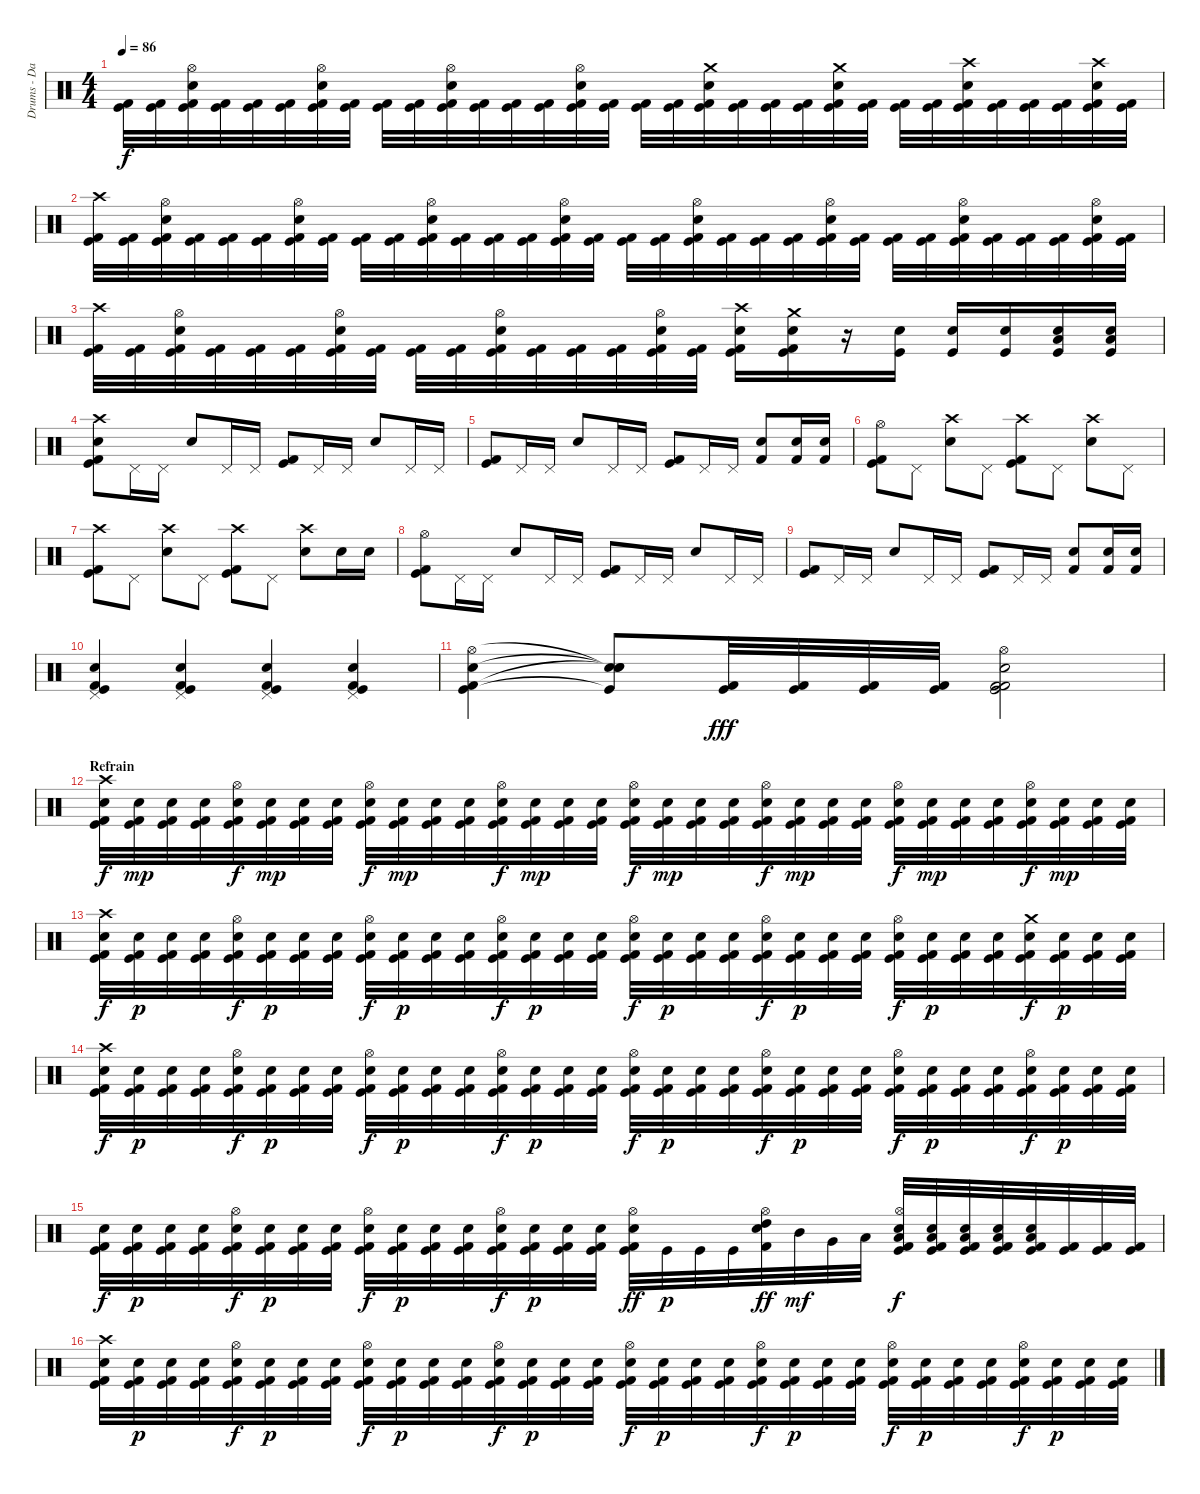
\track ("Drums - Daniel Zimmermann" "Drums - Da") {instrument percussion}
\staff {score}
\articulation defaults
\ts (4 4)
\tempo 86
\clef neutral
\ks c
("Kick (hit)" "Kick (hit) 2").32{dy f} ("Kick (hit)" "Kick (hit) 2").32 ("Kick (hit)" "Kick (hit) 2" "Electric Snare (hit)" "Hi-Hat (open)").32 ("Kick (hit)" "Kick (hit) 2").32 ("Kick (hit)" "Kick (hit) 2").32 ("Kick (hit)" "Kick (hit) 2").32 ("Kick (hit)" "Kick (hit) 2" "Electric Snare (hit)" "Hi-Hat (open)").32 ("Kick (hit)" "Kick (hit) 2").32 ("Kick (hit)" "Kick (hit) 2").32 ("Kick (hit)" "Kick (hit) 2").32 ("Kick (hit)" "Kick (hit) 2" "Electric Snare (hit)" "Hi-Hat (open)").32 ("Kick (hit)" "Kick (hit) 2").32 ("Kick (hit)" "Kick (hit) 2").32 ("Kick (hit)" "Kick (hit) 2").32 ("Kick (hit)" "Kick (hit) 2" "Electric Snare (hit)" "Hi-Hat (open)").32 ("Kick (hit)" "Kick (hit) 2").32 ("Kick (hit)" "Kick (hit) 2").32 ("Kick (hit)" "Kick (hit) 2").32 ("Kick (hit)" "Kick (hit) 2" "Electric Snare (hit)" "Crash medium (hit)").32 ("Kick (hit)" "Kick (hit) 2").32 ("Kick (hit)" "Kick (hit) 2").32 ("Kick (hit)" "Kick (hit) 2").32 ("Kick (hit)" "Kick (hit) 2" "Electric Snare (hit)" "Crash medium (hit)").32 ("Kick (hit)" "Kick (hit) 2").32 ("Kick (hit)" "Kick (hit) 2").32 ("Kick (hit)" "Kick (hit) 2").32 ("Kick (hit)" "Kick (hit) 2" "Electric Snare (hit)" "Crash high (hit)").32 ("Kick (hit)" "Kick (hit) 2").32 ("Kick (hit)" "Kick (hit) 2").32 ("Kick (hit)" "Kick (hit) 2").32 ("Kick (hit)" "Kick (hit) 2" "Electric Snare (hit)" "Crash high (hit)").32 ("Kick (hit)" "Kick (hit) 2").32 |
("Kick (hit)" "Kick (hit) 2" "Crash high (hit)").32 ("Kick (hit)" "Kick (hit) 2").32 ("Kick (hit)" "Kick (hit) 2" "Electric Snare (hit)" "Hi-Hat (open)").32 ("Kick (hit)" "Kick (hit) 2").32 ("Kick (hit)" "Kick (hit) 2").32 ("Kick (hit)" "Kick (hit) 2").32 ("Kick (hit)" "Kick (hit) 2" "Electric Snare (hit)" "Hi-Hat (open)").32 ("Kick (hit)" "Kick (hit) 2").32 ("Kick (hit)" "Kick (hit) 2").32 ("Kick (hit)" "Kick (hit) 2").32 ("Kick (hit)" "Kick (hit) 2" "Electric Snare (hit)" "Hi-Hat (open)").32 ("Kick (hit)" "Kick (hit) 2").32 ("Kick (hit)" "Kick (hit) 2").32 ("Kick (hit)" "Kick (hit) 2").32 ("Kick (hit)" "Kick (hit) 2" "Electric Snare (hit)" "Hi-Hat (open)").32 ("Kick (hit)" "Kick (hit) 2").32 ("Kick (hit)" "Kick (hit) 2").32 ("Kick (hit)" "Kick (hit) 2").32 ("Kick (hit)" "Kick (hit) 2" "Electric Snare (hit)" "Hi-Hat (open)").32 ("Kick (hit)" "Kick (hit) 2").32 ("Kick (hit)" "Kick (hit) 2").32 ("Kick (hit)" "Kick (hit) 2").32 ("Kick (hit)" "Kick (hit) 2" "Electric Snare (hit)" "Hi-Hat (open)").32 ("Kick (hit)" "Kick (hit) 2").32 ("Kick (hit)" "Kick (hit) 2").32 ("Kick (hit)" "Kick (hit) 2").32 ("Kick (hit)" "Kick (hit) 2" "Electric Snare (hit)" "Hi-Hat (open)").32 ("Kick (hit)" "Kick (hit) 2").32 ("Kick (hit)" "Kick (hit) 2").32 ("Kick (hit)" "Kick (hit) 2").32 ("Kick (hit)" "Kick (hit) 2" "Electric Snare (hit)" "Hi-Hat (open)").32 ("Kick (hit)" "Kick (hit) 2").32 |
("Kick (hit)" "Kick (hit) 2" "Crash high (hit)").32 ("Kick (hit)" "Kick (hit) 2").32 ("Kick (hit)" "Kick (hit) 2" "Electric Snare (hit)" "Hi-Hat (open)").32 ("Kick (hit)" "Kick (hit) 2").32 ("Kick (hit)" "Kick (hit) 2").32 ("Kick (hit)" "Kick (hit) 2").32 ("Kick (hit)" "Kick (hit) 2" "Electric Snare (hit)" "Hi-Hat (open)").32 ("Kick (hit)" "Kick (hit) 2").32 ("Kick (hit)" "Kick (hit) 2").32 ("Kick (hit)" "Kick (hit) 2").32 ("Kick (hit)" "Kick (hit) 2" "Electric Snare (hit)" "Hi-Hat (open)").32 ("Kick (hit)" "Kick (hit) 2").32 ("Kick (hit)" "Kick (hit) 2").32 ("Kick (hit)" "Kick (hit) 2").32 ("Kick (hit)" "Kick (hit) 2" "Electric Snare (hit)" "Hi-Hat (open)").32 ("Kick (hit)" "Kick (hit) 2").32 ("Kick (hit)" "Kick (hit) 2" "Electric Snare (hit)" "Crash high (hit)").16 ("Kick (hit)" "Kick (hit) 2" "Electric Snare (hit)" "Crash medium (hit)").16 r.16 ("Kick (hit)" "Electric Snare (hit)").16 ("Kick (hit)" "Electric Snare (hit)").16 ("Kick (hit)" "Electric Snare (hit)").16 ("Kick (hit)" "Low Floor Tom (hit)" "Electric Snare (hit)").16 ("Kick (hit)" "Low Floor Tom (hit)" "Electric Snare (hit)").16 |
("Kick (hit)" "Kick (hit) 2" "Electric Snare (hit)" "Crash high (hit)").8 "Pedal Hi-Hat (hit)".16 "Pedal Hi-Hat (hit)".16 "Electric Snare (hit)".8 "Pedal Hi-Hat (hit)".16 "Pedal Hi-Hat (hit)".16 ("Kick (hit)" "Kick (hit) 2").8 "Pedal Hi-Hat (hit)".16 "Pedal Hi-Hat (hit)".16 "Electric Snare (hit)".8 "Pedal Hi-Hat (hit)".16 "Pedal Hi-Hat (hit)".16 |
("Kick (hit)" "Kick (hit) 2").8 "Pedal Hi-Hat (hit)".16 "Pedal Hi-Hat (hit)".16 "Electric Snare (hit)".8 "Pedal Hi-Hat (hit)".16 "Pedal Hi-Hat (hit)".16 ("Kick (hit)" "Kick (hit) 2").8 "Pedal Hi-Hat (hit)".16 "Pedal Hi-Hat (hit)".16 ("Kick (hit) 2" "Electric Snare (hit)").8 ("Kick (hit) 2" "Electric Snare (hit)").16 ("Kick (hit) 2" "Electric Snare (hit)").16 |
("Hi-Hat (open)" "Kick (hit)" "Kick (hit) 2").8 "Pedal Hi-Hat (hit)".8 ("Crash high (hit)" "Electric Snare (hit)").8 "Pedal Hi-Hat (hit)".8 ("Crash high (hit)" "Kick (hit)" "Kick (hit) 2").8 "Pedal Hi-Hat (hit)".8 ("Crash high (hit)" "Electric Snare (hit)").8 "Pedal Hi-Hat (hit)".8 |
("Crash high (hit)" "Kick (hit)" "Kick (hit) 2").8 "Pedal Hi-Hat (hit)".8 ("Crash high (hit)" "Electric Snare (hit)").8 "Pedal Hi-Hat (hit)".8 ("Crash high (hit)" "Kick (hit)" "Kick (hit) 2").8 "Pedal Hi-Hat (hit)".8 ("Crash high (hit)" "Electric Snare (hit)").8 "Electric Snare (hit)".16 "Electric Snare (hit)".16 |
("Kick (hit)" "Kick (hit) 2" "Hi-Hat (open)").8 "Pedal Hi-Hat (hit)".16 "Pedal Hi-Hat (hit)".16 "Electric Snare (hit)".8 "Pedal Hi-Hat (hit)".16 "Pedal Hi-Hat (hit)".16 ("Kick (hit)" "Kick (hit) 2").8 "Pedal Hi-Hat (hit)".16 "Pedal Hi-Hat (hit)".16 "Electric Snare (hit)".8 "Pedal Hi-Hat (hit)".16 "Pedal Hi-Hat (hit)".16 |
("Kick (hit)" "Kick (hit) 2").8 "Pedal Hi-Hat (hit)".16 "Pedal Hi-Hat (hit)".16 "Electric Snare (hit)".8 "Pedal Hi-Hat (hit)".16 "Pedal Hi-Hat (hit)".16 ("Kick (hit)" "Kick (hit) 2").8 "Pedal Hi-Hat (hit)".16 "Pedal Hi-Hat (hit)".16 ("Kick (hit) 2" "Electric Snare (hit)").8 ("Kick (hit) 2" "Electric Snare (hit)").16 ("Kick (hit) 2" "Electric Snare (hit)").16 |
("Kick (hit)" "Kick (hit) 2" "Electric Snare (hit)" "Pedal Hi-Hat (hit)").4 ("Kick (hit)" "Kick (hit) 2" "Electric Snare (hit)" "Pedal Hi-Hat (hit)").4 ("Kick (hit)" "Kick (hit) 2" "Electric Snare (hit)" "Pedal Hi-Hat (hit)").4 ("Kick (hit)" "Kick (hit) 2" "Electric Snare (hit)" "Pedal Hi-Hat (hit)").4 |
("Kick (hit)" "Kick (hit) 2" "Electric Snare (hit)" "Hi-Hat (open)").4 ("Kick (hit)"{t} "Snare (hit)"{t} "Snare (hit)"{t} "Snare (hit)"{t}).8 ("Kick (hit)" "Kick (hit) 2").32{dy fff} ("Kick (hit)" "Kick (hit) 2").32 ("Kick (hit)" "Kick (hit) 2").32 ("Kick (hit)" "Kick (hit) 2").32 ("Kick (hit)" "Kick (hit) 2" "Kick (hit) 2" "Electric Snare (hit)" "Hi-Hat (open)").2 |
\section ("" "Refrain")
("Kick (hit)" "Kick (hit) 2" "Electric Snare (hit)" "Crash high (hit)").32{dy f} ("Kick (hit)" "Kick (hit) 2" "Electric Snare (hit)").32{dy mp} ("Kick (hit)" "Kick (hit) 2" "Electric Snare (hit)").32 ("Kick (hit)" "Kick (hit) 2" "Electric Snare (hit)").32 ("Kick (hit)" "Kick (hit) 2" "Electric Snare (hit)" "Hi-Hat (open)").32{dy f} ("Kick (hit)" "Kick (hit) 2" "Electric Snare (hit)").32{dy mp} ("Kick (hit)" "Kick (hit) 2" "Electric Snare (hit)").32 ("Kick (hit)" "Kick (hit) 2" "Electric Snare (hit)").32 ("Kick (hit)" "Kick (hit) 2" "Electric Snare (hit)" "Hi-Hat (open)").32{dy f} ("Kick (hit)" "Kick (hit) 2" "Electric Snare (hit)").32{dy mp} ("Kick (hit)" "Kick (hit) 2" "Electric Snare (hit)").32 ("Kick (hit)" "Kick (hit) 2" "Electric Snare (hit)").32 ("Kick (hit)" "Kick (hit) 2" "Electric Snare (hit)" "Hi-Hat (open)").32{dy f} ("Kick (hit)" "Kick (hit) 2" "Electric Snare (hit)").32{dy mp} ("Kick (hit)" "Kick (hit) 2" "Electric Snare (hit)").32 ("Kick (hit)" "Kick (hit) 2" "Electric Snare (hit)").32 ("Kick (hit)" "Kick (hit) 2" "Electric Snare (hit)" "Hi-Hat (open)").32{dy f} ("Kick (hit)" "Kick (hit) 2" "Electric Snare (hit)").32{dy mp} ("Kick (hit)" "Kick (hit) 2" "Electric Snare (hit)").32 ("Kick (hit)" "Kick (hit) 2" "Electric Snare (hit)").32 ("Kick (hit)" "Kick (hit) 2" "Electric Snare (hit)" "Hi-Hat (open)").32{dy f} ("Kick (hit)" "Kick (hit) 2" "Electric Snare (hit)").32{dy mp} ("Kick (hit)" "Kick (hit) 2" "Electric Snare (hit)").32 ("Kick (hit)" "Kick (hit) 2" "Electric Snare (hit)").32 ("Kick (hit)" "Kick (hit) 2" "Electric Snare (hit)" "Hi-Hat (open)").32{dy f} ("Kick (hit)" "Kick (hit) 2" "Electric Snare (hit)").32{dy mp} ("Kick (hit)" "Kick (hit) 2" "Electric Snare (hit)").32 ("Kick (hit)" "Kick (hit) 2" "Electric Snare (hit)").32 ("Kick (hit)" "Kick (hit) 2" "Electric Snare (hit)" "Hi-Hat (open)").32{dy f} ("Kick (hit)" "Kick (hit) 2" "Electric Snare (hit)").32{dy mp} ("Kick (hit)" "Kick (hit) 2" "Electric Snare (hit)").32 ("Kick (hit)" "Kick (hit) 2" "Electric Snare (hit)").32 |
("Kick (hit)" "Kick (hit) 2" "Electric Snare (hit)" "Crash high (hit)").32{dy f} ("Kick (hit)" "Kick (hit) 2" "Electric Snare (hit)").32{dy p} ("Kick (hit)" "Kick (hit) 2" "Electric Snare (hit)").32 ("Kick (hit)" "Kick (hit) 2" "Electric Snare (hit)").32 ("Kick (hit)" "Kick (hit) 2" "Electric Snare (hit)" "Hi-Hat (open)").32{dy f} ("Kick (hit)" "Kick (hit) 2" "Electric Snare (hit)").32{dy p} ("Kick (hit)" "Kick (hit) 2" "Electric Snare (hit)").32 ("Kick (hit)" "Kick (hit) 2" "Electric Snare (hit)").32 ("Kick (hit)" "Kick (hit) 2" "Electric Snare (hit)" "Hi-Hat (open)").32{dy f} ("Kick (hit)" "Kick (hit) 2" "Electric Snare (hit)").32{dy p} ("Kick (hit)" "Kick (hit) 2" "Electric Snare (hit)").32 ("Kick (hit)" "Kick (hit) 2" "Electric Snare (hit)").32 ("Kick (hit)" "Kick (hit) 2" "Electric Snare (hit)" "Hi-Hat (open)").32{dy f} ("Kick (hit)" "Kick (hit) 2" "Electric Snare (hit)").32{dy p} ("Kick (hit)" "Kick (hit) 2" "Electric Snare (hit)").32 ("Kick (hit)" "Kick (hit) 2" "Electric Snare (hit)").32 ("Kick (hit)" "Kick (hit) 2" "Electric Snare (hit)" "Hi-Hat (open)").32{dy f} ("Kick (hit)" "Kick (hit) 2" "Electric Snare (hit)").32{dy p} ("Kick (hit)" "Kick (hit) 2" "Electric Snare (hit)").32 ("Kick (hit)" "Kick (hit) 2" "Electric Snare (hit)").32 ("Kick (hit)" "Kick (hit) 2" "Electric Snare (hit)" "Hi-Hat (open)").32{dy f} ("Kick (hit)" "Kick (hit) 2" "Electric Snare (hit)").32{dy p} ("Kick (hit)" "Kick (hit) 2" "Electric Snare (hit)").32 ("Kick (hit)" "Kick (hit) 2" "Electric Snare (hit)").32 ("Kick (hit)" "Kick (hit) 2" "Electric Snare (hit)" "Hi-Hat (open)").32{dy f} ("Kick (hit)" "Kick (hit) 2" "Electric Snare (hit)").32{dy p} ("Kick (hit)" "Kick (hit) 2" "Electric Snare (hit)").32 ("Kick (hit)" "Kick (hit) 2" "Electric Snare (hit)").32 ("Kick (hit)" "Kick (hit) 2" "Electric Snare (hit)" "Crash medium (hit)").32{dy f} ("Kick (hit)" "Kick (hit) 2" "Electric Snare (hit)").32{dy p} ("Kick (hit)" "Kick (hit) 2" "Electric Snare (hit)").32 ("Kick (hit)" "Kick (hit) 2" "Electric Snare (hit)").32 |
("Kick (hit)" "Kick (hit) 2" "Electric Snare (hit)" "Crash high (hit)").32{dy f} ("Kick (hit)" "Kick (hit) 2" "Electric Snare (hit)").32{dy p} ("Kick (hit)" "Kick (hit) 2" "Electric Snare (hit)").32 ("Kick (hit)" "Kick (hit) 2" "Electric Snare (hit)").32 ("Kick (hit)" "Kick (hit) 2" "Electric Snare (hit)" "Hi-Hat (open)").32{dy f} ("Kick (hit)" "Kick (hit) 2" "Electric Snare (hit)").32{dy p} ("Kick (hit)" "Kick (hit) 2" "Electric Snare (hit)").32 ("Kick (hit)" "Kick (hit) 2" "Electric Snare (hit)").32 ("Kick (hit)" "Kick (hit) 2" "Electric Snare (hit)" "Hi-Hat (open)").32{dy f} ("Kick (hit)" "Kick (hit) 2" "Electric Snare (hit)").32{dy p} ("Kick (hit)" "Kick (hit) 2" "Electric Snare (hit)").32 ("Kick (hit)" "Kick (hit) 2" "Electric Snare (hit)").32 ("Kick (hit)" "Kick (hit) 2" "Electric Snare (hit)" "Hi-Hat (open)").32{dy f} ("Kick (hit)" "Kick (hit) 2" "Electric Snare (hit)").32{dy p} ("Kick (hit)" "Kick (hit) 2" "Electric Snare (hit)").32 ("Kick (hit)" "Kick (hit) 2" "Electric Snare (hit)").32 ("Kick (hit)" "Kick (hit) 2" "Electric Snare (hit)" "Hi-Hat (open)").32{dy f} ("Kick (hit)" "Kick (hit) 2" "Electric Snare (hit)").32{dy p} ("Kick (hit)" "Kick (hit) 2" "Electric Snare (hit)").32 ("Kick (hit)" "Kick (hit) 2" "Electric Snare (hit)").32 ("Kick (hit)" "Kick (hit) 2" "Electric Snare (hit)" "Hi-Hat (open)").32{dy f} ("Kick (hit)" "Kick (hit) 2" "Electric Snare (hit)").32{dy p} ("Kick (hit)" "Kick (hit) 2" "Electric Snare (hit)").32 ("Kick (hit)" "Kick (hit) 2" "Electric Snare (hit)").32 ("Kick (hit)" "Kick (hit) 2" "Electric Snare (hit)" "Hi-Hat (open)").32{dy f} ("Kick (hit)" "Kick (hit) 2" "Electric Snare (hit)").32{dy p} ("Kick (hit)" "Kick (hit) 2" "Electric Snare (hit)").32 ("Kick (hit)" "Kick (hit) 2" "Electric Snare (hit)").32 ("Kick (hit)" "Kick (hit) 2" "Electric Snare (hit)" "Hi-Hat (open)").32{dy f} ("Kick (hit)" "Kick (hit) 2" "Electric Snare (hit)").32{dy p} ("Kick (hit)" "Kick (hit) 2" "Electric Snare (hit)").32 ("Kick (hit)" "Kick (hit) 2" "Electric Snare (hit)").32 |
("Kick (hit)" "Kick (hit) 2" "Electric Snare (hit)").32{dy f} ("Kick (hit)" "Kick (hit) 2" "Electric Snare (hit)").32{dy p} ("Kick (hit)" "Kick (hit) 2" "Electric Snare (hit)").32 ("Kick (hit)" "Kick (hit) 2" "Electric Snare (hit)").32 ("Kick (hit)" "Kick (hit) 2" "Electric Snare (hit)" "Hi-Hat (open)").32{dy f} ("Kick (hit)" "Kick (hit) 2" "Electric Snare (hit)").32{dy p} ("Kick (hit)" "Kick (hit) 2" "Electric Snare (hit)").32 ("Kick (hit)" "Kick (hit) 2" "Electric Snare (hit)").32 ("Kick (hit)" "Kick (hit) 2" "Electric Snare (hit)" "Hi-Hat (open)").32{dy f} ("Kick (hit)" "Kick (hit) 2" "Electric Snare (hit)").32{dy p} ("Kick (hit)" "Kick (hit) 2" "Electric Snare (hit)").32 ("Kick (hit)" "Kick (hit) 2" "Electric Snare (hit)").32 ("Kick (hit)" "Kick (hit) 2" "Electric Snare (hit)" "Hi-Hat (open)").32{dy f} ("Kick (hit)" "Kick (hit) 2" "Electric Snare (hit)").32{dy p} ("Kick (hit)" "Kick (hit) 2" "Electric Snare (hit)").32 ("Kick (hit)" "Kick (hit) 2" "Electric Snare (hit)").32 ("Kick (hit)" "Kick (hit) 2" "Electric Snare (hit)" "Hi-Hat (open)").32{dy ff} "Kick (hit)".32{dy p} "Kick (hit)".32 "Kick (hit)".32 ("High Tom (hit)" "Kick (hit) 2" "Electric Snare (hit)" "Hi-Hat (open)").32{dy ff} "Mid Tom (hit)".32{dy mf} "Very Low Tom (hit)".32 "Low Floor Tom (hit)".32 ("Kick (hit)" "Kick (hit) 2" "Electric Snare (hit)" "Hi-Hat (open)" "Low Floor Tom (hit)").32{dy f} ("Kick (hit)" "Kick (hit) 2" "Electric Snare (hit)" "Low Floor Tom (hit)").32 ("Kick (hit)" "Kick (hit) 2" "Electric Snare (hit)" "Low Floor Tom (hit)").32 ("Kick (hit)" "Kick (hit) 2" "Electric Snare (hit)" "Low Floor Tom (hit)").32 ("Kick (hit)" "Kick (hit) 2" "Electric Snare (hit)" "Low Floor Tom (hit)").32 ("Kick (hit)" "Kick (hit) 2").32 ("Kick (hit)" "Kick (hit) 2").32 ("Kick (hit)" "Kick (hit) 2").32 |
("Kick (hit)" "Kick (hit) 2" "Electric Snare (hit)" "Crash high (hit)").32 ("Kick (hit)" "Kick (hit) 2" "Electric Snare (hit)").32{dy p} ("Kick (hit)" "Kick (hit) 2" "Electric Snare (hit)").32 ("Kick (hit)" "Kick (hit) 2" "Electric Snare (hit)").32 ("Kick (hit)" "Kick (hit) 2" "Electric Snare (hit)" "Hi-Hat (open)").32{dy f} ("Kick (hit)" "Kick (hit) 2" "Electric Snare (hit)").32{dy p} ("Kick (hit)" "Kick (hit) 2" "Electric Snare (hit)").32 ("Kick (hit)" "Kick (hit) 2" "Electric Snare (hit)").32 ("Kick (hit)" "Kick (hit) 2" "Electric Snare (hit)" "Hi-Hat (open)").32{dy f} ("Kick (hit)" "Kick (hit) 2" "Electric Snare (hit)").32{dy p} ("Kick (hit)" "Kick (hit) 2" "Electric Snare (hit)").32 ("Kick (hit)" "Kick (hit) 2" "Electric Snare (hit)").32 ("Kick (hit)" "Kick (hit) 2" "Electric Snare (hit)" "Hi-Hat (open)").32{dy f} ("Kick (hit)" "Kick (hit) 2" "Electric Snare (hit)").32{dy p} ("Kick (hit)" "Kick (hit) 2" "Electric Snare (hit)").32 ("Kick (hit)" "Kick (hit) 2" "Electric Snare (hit)").32 ("Kick (hit)" "Kick (hit) 2" "Electric Snare (hit)" "Hi-Hat (open)").32{dy f} ("Kick (hit)" "Kick (hit) 2" "Electric Snare (hit)").32{dy p} ("Kick (hit)" "Kick (hit) 2" "Electric Snare (hit)").32 ("Kick (hit)" "Kick (hit) 2" "Electric Snare (hit)").32 ("Kick (hit)" "Kick (hit) 2" "Electric Snare (hit)" "Hi-Hat (open)").32{dy f} ("Kick (hit)" "Kick (hit) 2" "Electric Snare (hit)").32{dy p} ("Kick (hit)" "Kick (hit) 2" "Electric Snare (hit)").32 ("Kick (hit)" "Kick (hit) 2" "Electric Snare (hit)").32 ("Kick (hit)" "Kick (hit) 2" "Electric Snare (hit)" "Hi-Hat (open)").32{dy f} ("Kick (hit)" "Kick (hit) 2" "Electric Snare (hit)").32{dy p} ("Kick (hit)" "Kick (hit) 2" "Electric Snare (hit)").32 ("Kick (hit)" "Kick (hit) 2" "Electric Snare (hit)").32 ("Kick (hit)" "Kick (hit) 2" "Electric Snare (hit)" "Hi-Hat (open)").32{dy f} ("Kick (hit)" "Kick (hit) 2" "Electric Snare (hit)").32{dy p} ("Kick (hit)" "Kick (hit) 2" "Electric Snare (hit)").32 ("Kick (hit)" "Kick (hit) 2" "Electric Snare (hit)").32
